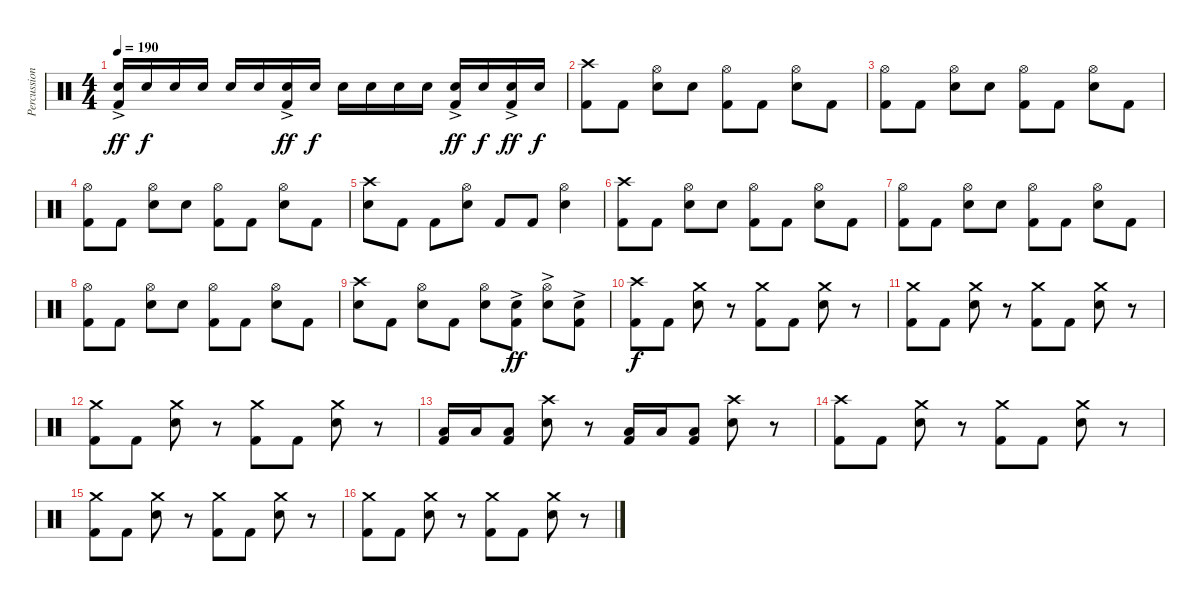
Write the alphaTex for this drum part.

\track ("Percussion" "Percussion") {instrument percussion}
\staff {score}
\articulation defaults
\ts (4 4)
\tempo 190
\clef neutral
\ks c
("Electric Snare (hit)"{ac} "Kick (hit) 2").16{dy ff} "Electric Snare (hit)".16{dy f} "Electric Snare (hit)".16 "Electric Snare (hit)".16 "Electric Snare (hit)".16 "Electric Snare (hit)".16 ("Electric Snare (hit)"{ac} "Kick (hit) 2").16{dy ff} "Electric Snare (hit)".16{dy f} "Electric Snare (hit)".16 "Electric Snare (hit)".16 "Electric Snare (hit)".16 "Electric Snare (hit)".16 ("Electric Snare (hit)"{ac} "Kick (hit) 2").16{dy ff} "Electric Snare (hit)".16{dy f} ("Electric Snare (hit)"{ac} "Kick (hit) 2").16{dy ff} "Electric Snare (hit)".16{dy f} |
("Crash high (hit)" "Kick (hit) 2").8 "Kick (hit) 2".8 ("Hi-Hat (open)" "Snare (hit) 2").8 "Snare (hit) 2".8 ("Hi-Hat (open)" "Kick (hit) 2").8 "Kick (hit) 2".8 ("Hi-Hat (open)" "Snare (hit) 2").8 "Kick (hit) 2".8 |
("Hi-Hat (open)" "Kick (hit) 2").8 "Kick (hit) 2".8 ("Hi-Hat (open)" "Snare (hit) 2").8 "Snare (hit) 2".8 ("Hi-Hat (open)" "Kick (hit) 2").8 "Kick (hit) 2".8 ("Hi-Hat (open)" "Snare (hit) 2").8 "Kick (hit) 2".8 |
("Hi-Hat (open)" "Kick (hit) 2").8 "Kick (hit) 2".8 ("Hi-Hat (open)" "Snare (hit) 2").8 "Snare (hit) 2".8 ("Hi-Hat (open)" "Kick (hit) 2").8 "Kick (hit) 2".8 ("Hi-Hat (open)" "Snare (hit) 2").8 "Kick (hit) 2".8 |
("Crash high (hit)" "Snare (hit) 2").8 "Kick (hit) 2".8 "Kick (hit) 2".8 ("Hi-Hat (open)" "Snare (hit) 2").8 "Kick (hit) 2".8 "Kick (hit) 2".8 ("Hi-Hat (open)" "Snare (hit) 2").4 |
("Crash high (hit)" "Kick (hit) 2").8 "Kick (hit) 2".8 ("Hi-Hat (open)" "Snare (hit) 2").8 "Snare (hit) 2".8 ("Hi-Hat (open)" "Kick (hit) 2").8 "Kick (hit) 2".8 ("Hi-Hat (open)" "Snare (hit) 2").8 "Kick (hit) 2".8 |
("Hi-Hat (open)" "Kick (hit) 2").8 "Kick (hit) 2".8 ("Hi-Hat (open)" "Snare (hit) 2").8 "Snare (hit) 2".8 ("Hi-Hat (open)" "Kick (hit) 2").8 "Kick (hit) 2".8 ("Hi-Hat (open)" "Snare (hit) 2").8 "Kick (hit) 2".8 |
("Hi-Hat (open)" "Kick (hit) 2").8 "Kick (hit) 2".8 ("Hi-Hat (open)" "Snare (hit) 2").8 "Snare (hit) 2".8 ("Hi-Hat (open)" "Kick (hit) 2").8 "Kick (hit) 2".8 ("Hi-Hat (open)" "Snare (hit) 2").8 "Kick (hit) 2".8 |
("Crash high (hit)" "Snare (hit) 2").8 "Kick (hit) 2".8 ("Hi-Hat (open)" "Snare (hit) 2").8 "Kick (hit) 2".8 ("Hi-Hat (open)" "Snare (hit) 2").8 ("Snare (hit) 2"{ac} "Kick (hit) 2").8{dy ff} ("Hi-Hat (open)" "Snare (hit) 2"{ac}).8 ("Snare (hit) 2"{ac} "Kick (hit) 2").8 |
("Crash high (hit)" "Kick (hit) 2").8{dy f} "Kick (hit) 2".8 ("Crash medium (hit)" "Snare (hit) 2").8 r.8 ("Crash medium (hit)" "Kick (hit) 2").8 "Kick (hit) 2".8 ("Crash medium (hit)" "Snare (hit) 2").8 r.8 |
("Crash medium (hit)" "Kick (hit) 2").8 "Kick (hit) 2".8 ("Crash medium (hit)" "Snare (hit) 2").8 r.8 ("Crash medium (hit)" "Kick (hit) 2").8 "Kick (hit) 2".8 ("Crash medium (hit)" "Snare (hit) 2").8 r.8 |
("Crash medium (hit)" "Kick (hit) 2").8 "Kick (hit) 2".8 ("Crash medium (hit)" "Snare (hit) 2").8 r.8 ("Crash medium (hit)" "Kick (hit) 2").8 "Kick (hit) 2".8 ("Crash medium (hit)" "Snare (hit) 2").8 r.8 |
("Low Floor Tom (hit)" "Kick (hit) 2").16 "Low Floor Tom (hit)".16 ("Low Floor Tom (hit)" "Kick (hit) 2").8 ("Crash high (hit)" "Snare (hit) 2").8 r.8 ("Low Floor Tom (hit)" "Kick (hit) 2").16 "Low Floor Tom (hit)".16 ("Low Floor Tom (hit)" "Kick (hit) 2").8 ("Crash high (hit)" "Snare (hit) 2").8 r.8 |
("Crash high (hit)" "Kick (hit) 2").8 "Kick (hit) 2".8 ("Crash medium (hit)" "Snare (hit) 2").8 r.8 ("Crash medium (hit)" "Kick (hit) 2").8 "Kick (hit) 2".8 ("Crash medium (hit)" "Snare (hit) 2").8 r.8 |
("Crash medium (hit)" "Kick (hit) 2").8 "Kick (hit) 2".8 ("Crash medium (hit)" "Snare (hit) 2").8 r.8 ("Crash medium (hit)" "Kick (hit) 2").8 "Kick (hit) 2".8 ("Crash medium (hit)" "Snare (hit) 2").8 r.8 |
("Crash medium (hit)" "Kick (hit) 2").8 "Kick (hit) 2".8 ("Crash medium (hit)" "Snare (hit) 2").8 r.8 ("Crash medium (hit)" "Kick (hit) 2").8 "Kick (hit) 2".8 ("Crash medium (hit)" "Snare (hit) 2").8 r.8
